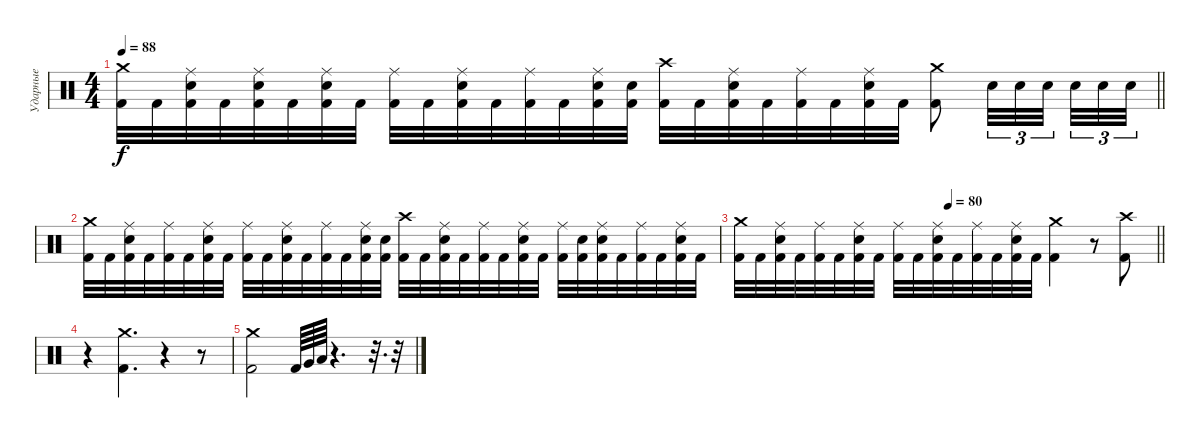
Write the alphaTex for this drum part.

\track ("Ударные" "Ударные") {instrument percussion}
\staff {score}
\articulation defaults
\ts (4 4)
\tempo 88
\clef neutral
\barLineRight lightlight
\ks c
("Crash medium (hit)" "Kick (hit) 2").32{dy f} "Kick (hit) 2".32 ("Ride (middle)" "Snare (hit) 2" "Kick (hit) 2").32 "Kick (hit) 2".32 ("Ride (middle)" "Kick (hit) 2" "Snare (hit)").32 "Kick (hit) 2".32 ("Ride (middle)" "Snare (hit) 2" "Kick (hit) 2").32 "Kick (hit) 2".32 ("Ride (middle)" "Kick (hit) 2").32 "Kick (hit) 2".32 ("Ride (middle)" "Snare (hit) 2" "Kick (hit) 2").32 "Kick (hit) 2".32 ("Ride (middle)" "Kick (hit) 2").32 "Kick (hit) 2".32 ("Ride (middle)" "Snare (hit) 2" "Kick (hit) 2").32 ("Snare (hit)" "Kick (hit) 2").32 ("Crash high (hit)" "Kick (hit) 2").32 "Kick (hit) 2".32 ("Ride (middle)" "Snare (hit) 2" "Kick (hit) 2").32 "Kick (hit) 2".32 ("Ride (middle)" "Kick (hit) 2").32 "Kick (hit) 2".32 ("Ride (middle)" "Snare (hit) 2" "Kick (hit) 2").32 "Kick (hit) 2".32 ("Kick (hit) 2" "Crash medium (hit)").8 "Snare (hit) 2".32{tu (3 2)} "Snare (hit) 2".32{tu (3 2)} "Snare (hit) 2".32{tu (3 2) beam splitsecondary} "Snare (hit) 2".32{tu (3 2)} "Snare (hit) 2".32{tu (3 2)} "Snare (hit) 2".32{tu (3 2)} |
("Crash medium (hit)" "Kick (hit) 2").32 "Kick (hit) 2".32 ("Ride (middle)" "Snare (hit) 2" "Kick (hit) 2").32 "Kick (hit) 2".32 ("Ride (middle)" "Kick (hit) 2").32 "Kick (hit) 2".32 ("Ride (middle)" "Snare (hit) 2" "Kick (hit) 2").32 "Kick (hit) 2".32 ("Ride (middle)" "Kick (hit) 2").32 "Kick (hit) 2".32 ("Ride (middle)" "Snare (hit) 2" "Kick (hit) 2").32 "Kick (hit) 2".32 ("Ride (middle)" "Kick (hit) 2").32 "Kick (hit) 2".32 ("Ride (middle)" "Snare (hit) 2" "Kick (hit) 2").32 ("Snare (hit)" "Kick (hit) 2").32 ("Crash high (hit)" "Kick (hit) 2").32 "Kick (hit) 2".32 ("Ride (middle)" "Snare (hit) 2" "Kick (hit) 2").32 "Kick (hit) 2".32 ("Ride (middle)" "Kick (hit) 2").32 "Kick (hit) 2".32 ("Ride (middle)" "Snare (hit) 2" "Kick (hit) 2").32 "Kick (hit) 2".32 ("Ride (middle)" "Kick (hit) 2").32 ("Snare (hit)" "Kick (hit) 2").32 ("Ride (middle)" "Snare (hit) 2" "Kick (hit) 2").32 "Kick (hit) 2".32 ("Ride (middle)" "Kick (hit) 2").32 "Kick (hit) 2".32 ("Ride (middle)" "Snare (hit) 2" "Kick (hit) 2").32 "Kick (hit) 2".32 |
\tempo (80 0.5)
\barLineRight lightlight
("Crash medium (hit)" "Kick (hit) 2").32 "Kick (hit) 2".32 ("Ride (middle)" "Snare (hit) 2" "Kick (hit) 2").32 "Kick (hit) 2".32 ("Ride (middle)" "Kick (hit) 2").32 "Kick (hit) 2".32 ("Ride (middle)" "Snare (hit) 2" "Kick (hit) 2").32 "Kick (hit) 2".32 ("Ride (middle)" "Kick (hit) 2").32 "Kick (hit) 2".32 ("Ride (middle)" "Snare (hit) 2" "Kick (hit) 2").32 "Kick (hit) 2".32 ("Ride (middle)" "Kick (hit) 2").32 "Kick (hit) 2".32 ("Ride (middle)" "Snare (hit) 2" "Kick (hit) 2").32 "Kick (hit) 2".32 ("Kick (hit) 2" "Crash medium (hit)").4 r.8 ("Crash high (hit)" "Kick (hit) 2").8 |
r.4 ("Kick (hit) 2" "Crash medium (hit)").4{d} r.4 r.8 |
("Crash medium (hit)" "Kick (hit) 2").2 "Kick (hit) 2".64 "Very Low Tom (hit)".64 "Low Floor Tom (hit)".64 r.4{d} r.32{d} r.32
